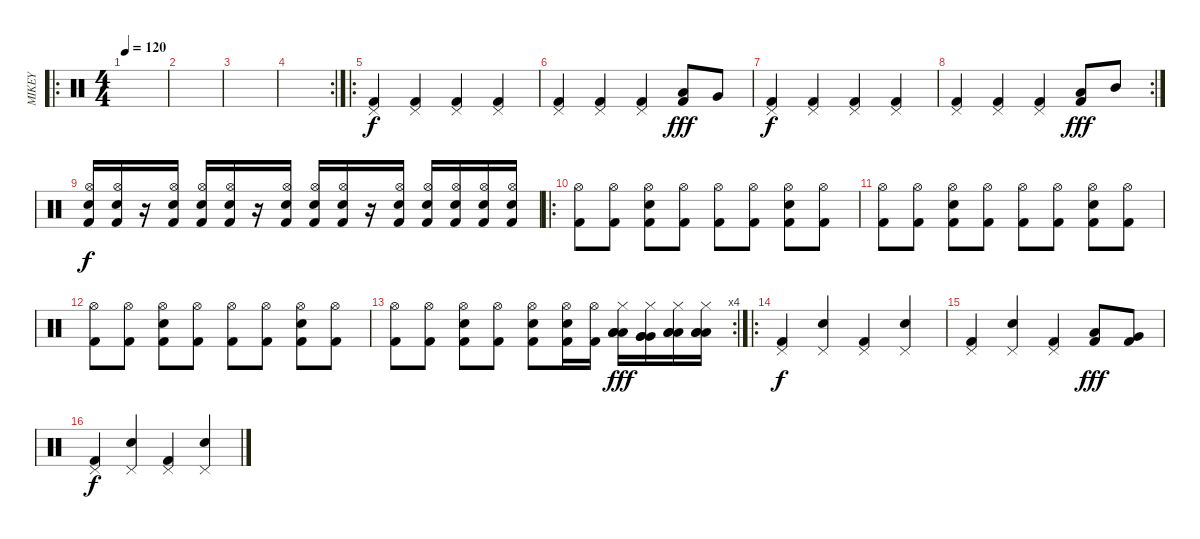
\track ("MIKEY" "MIKEY") {instrument percussion}
\staff {score}
\articulation defaults
\ro
\ts (4 4)
\tempo 120
\clef neutral
\ks c
|
|
|
\rc 2
|
\ro
("Pedal Hi-Hat (hit)" "Kick (hit) 2").4 ("Pedal Hi-Hat (hit)" "Kick (hit) 2").4 ("Pedal Hi-Hat (hit)" "Kick (hit) 2").4 ("Pedal Hi-Hat (hit)" "Kick (hit) 2").4 |
("Pedal Hi-Hat (hit)" "Kick (hit) 2").4 ("Pedal Hi-Hat (hit)" "Kick (hit) 2").4 ("Pedal Hi-Hat (hit)" "Kick (hit) 2").4 ("Low Tom (hit)" "Kick (hit) 2").8{dy fff} "Very Low Tom (hit)".8 |
("Pedal Hi-Hat (hit)" "Kick (hit) 2").4{dy f} ("Pedal Hi-Hat (hit)" "Kick (hit) 2").4 ("Pedal Hi-Hat (hit)" "Kick (hit) 2").4 ("Pedal Hi-Hat (hit)" "Kick (hit) 2").4 |
\rc 2
("Pedal Hi-Hat (hit)" "Kick (hit) 2").4 ("Pedal Hi-Hat (hit)" "Kick (hit) 2").4 ("Pedal Hi-Hat (hit)" "Kick (hit) 2").4 ("Low Tom (hit)" "Kick (hit) 2").8{dy fff} "Mid Tom (hit)".8 |
("Hi-Hat (open)" "Kick (hit) 2" "Electric Snare (hit)").16{dy f} ("Hi-Hat (open)" "Kick (hit) 2" "Electric Snare (hit)").16 r.16 ("Hi-Hat (open)" "Kick (hit) 2" "Electric Snare (hit)").16 ("Hi-Hat (open)" "Kick (hit) 2" "Electric Snare (hit)").16 ("Hi-Hat (open)" "Kick (hit) 2" "Electric Snare (hit)").16 r.16 ("Hi-Hat (open)" "Kick (hit) 2" "Electric Snare (hit)").16 ("Hi-Hat (open)" "Kick (hit) 2" "Electric Snare (hit)").16 ("Hi-Hat (open)" "Kick (hit) 2" "Electric Snare (hit)").16 r.16 ("Hi-Hat (open)" "Kick (hit) 2" "Electric Snare (hit)").16 ("Hi-Hat (open)" "Kick (hit) 2" "Electric Snare (hit)").16 ("Hi-Hat (open)" "Kick (hit) 2" "Electric Snare (hit)").16 ("Hi-Hat (open)" "Kick (hit) 2" "Electric Snare (hit)").16 ("Hi-Hat (open)" "Kick (hit) 2" "Electric Snare (hit)").16 |
\ro
("Hi-Hat (open)" "Kick (hit) 2").8 ("Hi-Hat (open)" "Kick (hit) 2").8 ("Snare (hit) 2" "Hi-Hat (open)" "Kick (hit) 2").8 ("Hi-Hat (open)" "Kick (hit) 2").8 ("Hi-Hat (open)" "Kick (hit) 2").8 ("Hi-Hat (open)" "Kick (hit) 2").8 ("Snare (hit) 2" "Hi-Hat (open)" "Kick (hit) 2").8 ("Hi-Hat (open)" "Kick (hit) 2").8 |
("Hi-Hat (open)" "Kick (hit) 2").8 ("Hi-Hat (open)" "Kick (hit) 2").8 ("Snare (hit) 2" "Hi-Hat (open)" "Kick (hit) 2").8 ("Hi-Hat (open)" "Kick (hit) 2").8 ("Hi-Hat (open)" "Kick (hit) 2").8 ("Hi-Hat (open)" "Kick (hit) 2").8 ("Snare (hit) 2" "Hi-Hat (open)" "Kick (hit) 2").8 ("Hi-Hat (open)" "Kick (hit) 2").8 |
("Hi-Hat (open)" "Kick (hit) 2").8 ("Hi-Hat (open)" "Kick (hit) 2").8 ("Snare (hit) 2" "Hi-Hat (open)" "Kick (hit) 2").8 ("Hi-Hat (open)" "Kick (hit) 2").8 ("Hi-Hat (open)" "Kick (hit) 2").8 ("Hi-Hat (open)" "Kick (hit) 2").8 ("Snare (hit) 2" "Hi-Hat (open)" "Kick (hit) 2").8 ("Hi-Hat (open)" "Kick (hit) 2").8 |
\rc 4
("Hi-Hat (open)" "Kick (hit) 2").8 ("Hi-Hat (open)" "Kick (hit) 2").8 ("Snare (hit) 2" "Hi-Hat (open)" "Kick (hit) 2").8 ("Hi-Hat (open)" "Kick (hit) 2").8 ("Snare (hit) 2" "Hi-Hat (open)" "Kick (hit) 2").8 ("Snare (hit) 2" "Hi-Hat (open)" "Kick (hit) 2").16 ("Hi-Hat (open)" "Kick (hit) 2").16 ("Low Tom (hit)" "Low Tom (hit)" "Low Tom (hit)" "Hi-Hat (closed)").16{dy fff} ("Very Low Tom (hit)" "Very Low Tom (hit)" "Very Low Tom (hit)" "Hi-Hat (closed)").16 ("Low Tom (hit)" "Low Tom (hit)" "Low Tom (hit)" "Hi-Hat (closed)").16 ("Low Floor Tom (hit)" "Low Floor Tom (hit)" "Low Floor Tom (hit)" "Hi-Hat (closed)").16 |
\ro
("Pedal Hi-Hat (hit)" "Kick (hit) 2").4{dy f} ("Pedal Hi-Hat (hit)" "Snare (hit) 2").4 ("Pedal Hi-Hat (hit)" "Kick (hit) 2").4 ("Pedal Hi-Hat (hit)" "Snare (hit) 2").4 |
("Pedal Hi-Hat (hit)" "Kick (hit) 2").4 ("Pedal Hi-Hat (hit)" "Snare (hit) 2").4 ("Pedal Hi-Hat (hit)" "Kick (hit) 2").4 ("Low Tom (hit)" "Kick (hit) 2").8{dy fff} ("Very Low Tom (hit)" "Kick (hit) 2").8 |
("Pedal Hi-Hat (hit)" "Kick (hit) 2").4{dy f} ("Pedal Hi-Hat (hit)" "Snare (hit) 2").4 ("Pedal Hi-Hat (hit)" "Kick (hit) 2").4 ("Pedal Hi-Hat (hit)" "Snare (hit) 2").4
